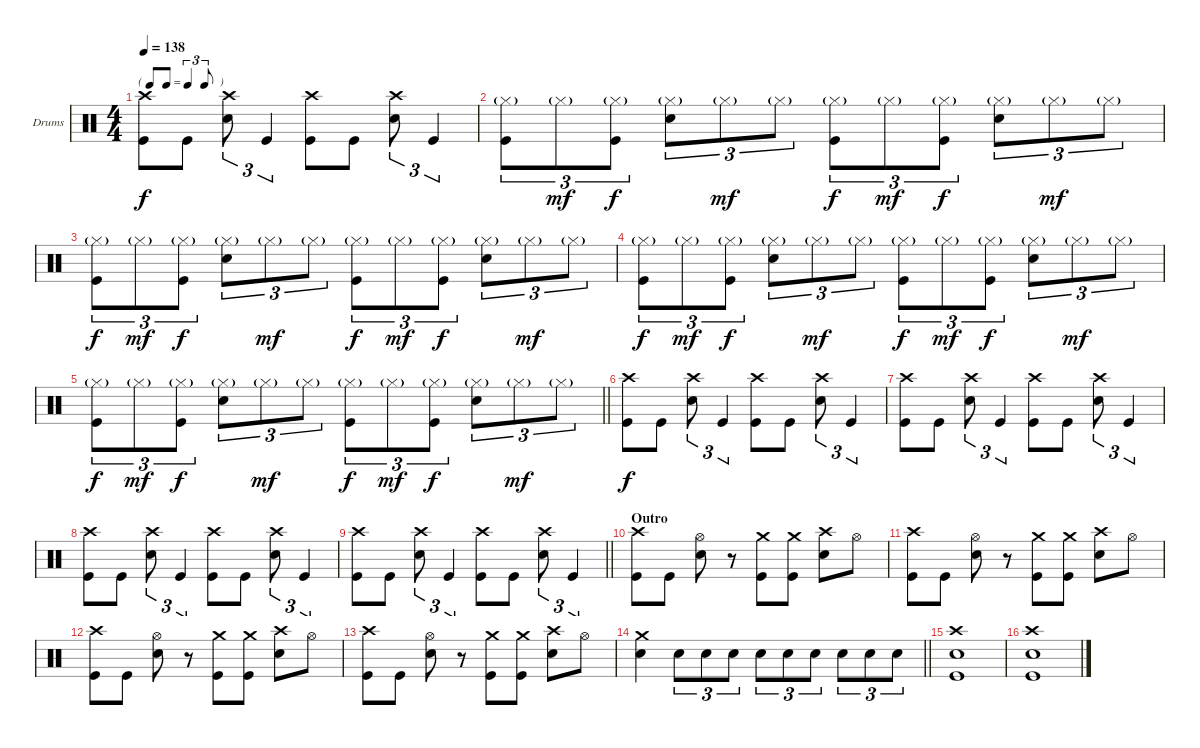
\bracketExtendMode groupsimilarinstruments
\firstSystemTrackNameOrientation horizontal
\otherSystemsTrackNameOrientation horizontal
\track ("Drumkit" "Drums") {instrument percussion}
\staff {score}
\articulation defaults
\ts (4 4)
\tf triplet8th
\tempo 138
\clef neutral
\ks c
("Crash high (hit)" "Kick (hit)").8{dy f} "Kick (hit)".8 ("Crash high (hit)" "Snare (hit) 2").8{tu (3 2)} "Kick (hit)".4{tu (3 2)} ("Crash high (hit)" "Kick (hit)").8 "Kick (hit)".8 ("Crash high (hit)" "Snare (hit) 2").8{tu (3 2)} "Kick (hit)".4{tu (3 2)} |
("Hi-Hat (closed)"{g} "Kick (hit)").8{tu (3 2)} "Hi-Hat (closed)"{g}.8{tu (3 2) dy mf} ("Hi-Hat (closed)"{g} "Kick (hit)").8{tu (3 2) dy f} ("Hi-Hat (closed)"{g} "Snare (hit) 2").8{tu (3 2)} "Hi-Hat (closed)"{g}.8{tu (3 2) dy mf} "Hi-Hat (closed)"{g}.8{tu (3 2)} ("Hi-Hat (closed)"{g} "Kick (hit)").8{tu (3 2) dy f} "Hi-Hat (closed)"{g}.8{tu (3 2) dy mf} ("Hi-Hat (closed)"{g} "Kick (hit)").8{tu (3 2) dy f} ("Hi-Hat (closed)"{g} "Snare (hit) 2").8{tu (3 2)} "Hi-Hat (closed)"{g}.8{tu (3 2) dy mf} "Hi-Hat (closed)"{g}.8{tu (3 2)} |
("Hi-Hat (closed)"{g} "Kick (hit)").8{tu (3 2) dy f} "Hi-Hat (closed)"{g}.8{tu (3 2) dy mf} ("Hi-Hat (closed)"{g} "Kick (hit)").8{tu (3 2) dy f} ("Hi-Hat (closed)"{g} "Snare (hit) 2").8{tu (3 2)} "Hi-Hat (closed)"{g}.8{tu (3 2) dy mf} "Hi-Hat (closed)"{g}.8{tu (3 2)} ("Hi-Hat (closed)"{g} "Kick (hit)").8{tu (3 2) dy f} "Hi-Hat (closed)"{g}.8{tu (3 2) dy mf} ("Hi-Hat (closed)"{g} "Kick (hit)").8{tu (3 2) dy f} ("Hi-Hat (closed)"{g} "Snare (hit) 2").8{tu (3 2)} "Hi-Hat (closed)"{g}.8{tu (3 2) dy mf} "Hi-Hat (closed)"{g}.8{tu (3 2)} |
("Hi-Hat (closed)"{g} "Kick (hit)").8{tu (3 2) dy f} "Hi-Hat (closed)"{g}.8{tu (3 2) dy mf} ("Hi-Hat (closed)"{g} "Kick (hit)").8{tu (3 2) dy f} ("Hi-Hat (closed)"{g} "Snare (hit) 2").8{tu (3 2)} "Hi-Hat (closed)"{g}.8{tu (3 2) dy mf} "Hi-Hat (closed)"{g}.8{tu (3 2)} ("Hi-Hat (closed)"{g} "Kick (hit)").8{tu (3 2) dy f} "Hi-Hat (closed)"{g}.8{tu (3 2) dy mf} ("Hi-Hat (closed)"{g} "Kick (hit)").8{tu (3 2) dy f} ("Hi-Hat (closed)"{g} "Snare (hit) 2").8{tu (3 2)} "Hi-Hat (closed)"{g}.8{tu (3 2) dy mf} "Hi-Hat (closed)"{g}.8{tu (3 2)} |
\barLineRight lightlight
("Hi-Hat (closed)"{g} "Kick (hit)").8{tu (3 2) dy f} "Hi-Hat (closed)"{g}.8{tu (3 2) dy mf} ("Hi-Hat (closed)"{g} "Kick (hit)").8{tu (3 2) dy f} ("Hi-Hat (closed)"{g} "Snare (hit) 2").8{tu (3 2)} "Hi-Hat (closed)"{g}.8{tu (3 2) dy mf} "Hi-Hat (closed)"{g}.8{tu (3 2)} ("Hi-Hat (closed)"{g} "Kick (hit)").8{tu (3 2) dy f} "Hi-Hat (closed)"{g}.8{tu (3 2) dy mf} ("Hi-Hat (closed)"{g} "Kick (hit)").8{tu (3 2) dy f} ("Hi-Hat (closed)"{g} "Snare (hit) 2").8{tu (3 2)} "Hi-Hat (closed)"{g}.8{tu (3 2) dy mf} "Hi-Hat (closed)"{g}.8{tu (3 2)} |
("Crash high (hit)" "Kick (hit)").8{dy f} "Kick (hit)".8 ("Crash high (hit)" "Snare (hit) 2").8{tu (3 2)} "Kick (hit)".4{tu (3 2)} ("Crash high (hit)" "Kick (hit)").8 "Kick (hit)".8 ("Crash high (hit)" "Snare (hit) 2").8{tu (3 2)} "Kick (hit)".4{tu (3 2)} |
("Crash high (hit)" "Kick (hit)").8 "Kick (hit)".8 ("Crash high (hit)" "Snare (hit) 2").8{tu (3 2)} "Kick (hit)".4{tu (3 2)} ("Crash high (hit)" "Kick (hit)").8 "Kick (hit)".8 ("Crash high (hit)" "Snare (hit) 2").8{tu (3 2)} "Kick (hit)".4{tu (3 2)} |
("Crash high (hit)" "Kick (hit)").8 "Kick (hit)".8 ("Crash high (hit)" "Snare (hit) 2").8{tu (3 2)} "Kick (hit)".4{tu (3 2)} ("Crash high (hit)" "Kick (hit)").8 "Kick (hit)".8 ("Crash high (hit)" "Snare (hit) 2").8{tu (3 2)} "Kick (hit)".4{tu (3 2)} |
\barLineRight lightlight
("Crash high (hit)" "Kick (hit)").8 "Kick (hit)".8 ("Crash high (hit)" "Snare (hit) 2").8{tu (3 2)} "Kick (hit)".4{tu (3 2)} ("Crash high (hit)" "Kick (hit)").8 "Kick (hit)".8 ("Crash high (hit)" "Snare (hit) 2").8{tu (3 2)} "Kick (hit)".4{tu (3 2)} |
\section ("" "Outro")
("Crash high (hit)" "Kick (hit)").8 "Kick (hit)".8 ("Hi-Hat (open)" "Snare (hit) 2").8 r.8 ("Crash medium (hit)" "Kick (hit)").8 ("Crash medium (hit)" "Kick (hit)").8 ("Crash high (hit)" "Snare (hit) 2").8 "Hi-Hat (open)".8 |
("Crash high (hit)" "Kick (hit)").8 "Kick (hit)".8 ("Hi-Hat (open)" "Snare (hit) 2").8 r.8 ("Crash medium (hit)" "Kick (hit)").8 ("Crash medium (hit)" "Kick (hit)").8 ("Crash high (hit)" "Snare (hit) 2").8 "Hi-Hat (open)".8 |
("Crash high (hit)" "Kick (hit)").8 "Kick (hit)".8 ("Hi-Hat (open)" "Snare (hit) 2").8 r.8 ("Crash medium (hit)" "Kick (hit)").8 ("Crash medium (hit)" "Kick (hit)").8 ("Crash high (hit)" "Snare (hit) 2").8 "Hi-Hat (open)".8 |
("Crash high (hit)" "Kick (hit)").8 "Kick (hit)".8 ("Hi-Hat (open)" "Snare (hit) 2").8 r.8 ("Crash medium (hit)" "Kick (hit)").8 ("Crash medium (hit)" "Kick (hit)").8 ("Crash high (hit)" "Snare (hit) 2").8 "Hi-Hat (open)".8 |
\barLineRight lightlight
("Crash medium (hit)" "Snare (hit) 2").4 "Snare (hit) 2".8{tu (3 2)} "Snare (hit) 2".8{tu (3 2)} "Snare (hit) 2".8{tu (3 2)} "Snare (hit) 2".8{tu (3 2)} "Snare (hit) 2".8{tu (3 2)} "Snare (hit) 2".8{tu (3 2)} "Snare (hit) 2".8{tu (3 2)} "Snare (hit) 2".8{tu (3 2)} "Snare (hit) 2".8{tu (3 2)} |
("Crash high (hit)" "Snare (hit) 2" "Kick (hit)").1 |
("Crash high (hit)" "Snare (hit) 2" "Kick (hit)").1
